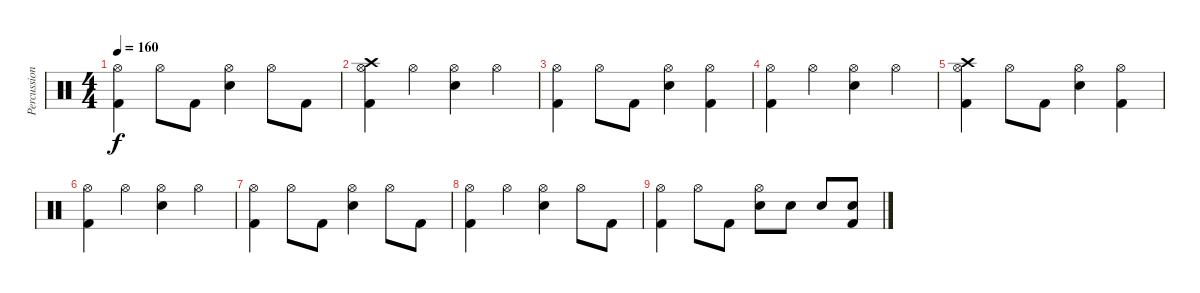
\track ("Percussion" "Percussion") {instrument percussion}
\staff {score}
\articulation defaults
\ts (4 4)
\tempo 160
\clef neutral
\ks c
("Hi-Hat (open)" "Kick (hit) 2").4{dy f} "Hi-Hat (open)".8 "Kick (hit) 2".8 ("Hi-Hat (open)" "Electric Snare (hit)").4 "Hi-Hat (open)".8 "Kick (hit) 2".8 |
("Crash high (hit)" "Hi-Hat (open)" "Kick (hit) 2").4 "Hi-Hat (open)".4 ("Hi-Hat (open)" "Electric Snare (hit)").4 "Hi-Hat (open)".4 |
("Hi-Hat (open)" "Kick (hit) 2").4 "Hi-Hat (open)".8 "Kick (hit) 2".8 ("Hi-Hat (open)" "Electric Snare (hit)").4 ("Hi-Hat (open)" "Kick (hit) 2").4 |
("Hi-Hat (open)" "Kick (hit) 2").4 "Hi-Hat (open)".4 ("Hi-Hat (open)" "Electric Snare (hit)").4 "Hi-Hat (open)".4 |
("Crash high (hit)" "Hi-Hat (open)" "Kick (hit) 2").4 "Hi-Hat (open)".8 "Kick (hit) 2".8 ("Hi-Hat (open)" "Electric Snare (hit)").4 ("Hi-Hat (open)" "Kick (hit) 2").4 |
("Hi-Hat (open)" "Kick (hit) 2").4 "Hi-Hat (open)".4 ("Hi-Hat (open)" "Electric Snare (hit)").4 "Hi-Hat (open)".4 |
("Hi-Hat (open)" "Kick (hit) 2").4 "Hi-Hat (open)".8 "Kick (hit) 2".8 ("Hi-Hat (open)" "Electric Snare (hit)").4 "Hi-Hat (open)".8 "Kick (hit) 2".8 |
("Hi-Hat (open)" "Kick (hit) 2").4 "Hi-Hat (open)".4 ("Hi-Hat (open)" "Electric Snare (hit)").4 "Hi-Hat (open)".8 "Kick (hit) 2".8 |
("Hi-Hat (open)" "Kick (hit) 2").4 "Hi-Hat (open)".8 "Kick (hit) 2".8 ("Hi-Hat (open)" "Electric Snare (hit)").8 "Electric Snare (hit)".8 "Electric Snare (hit)".8 ("Electric Snare (hit)" "Kick (hit) 2").8
